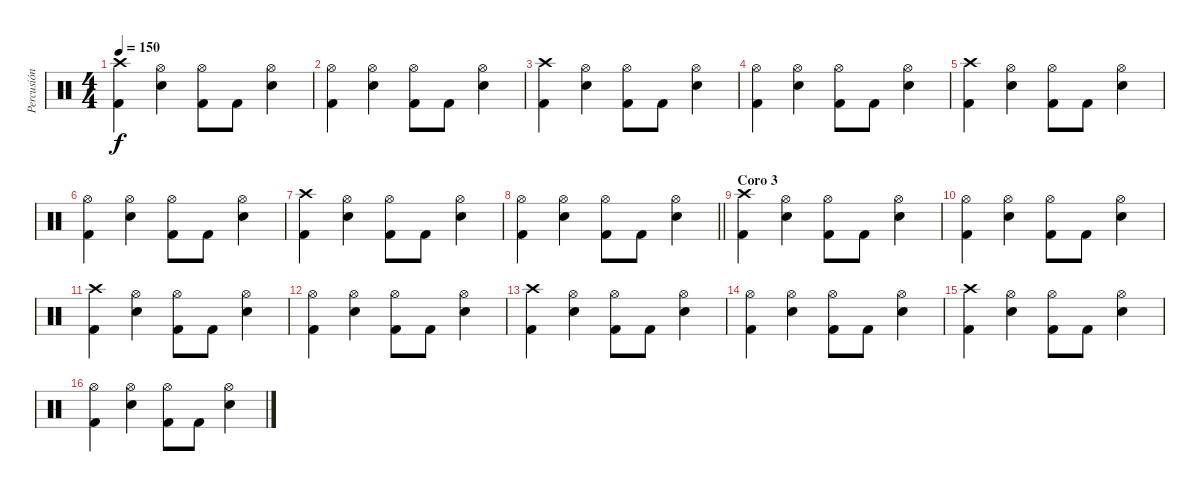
\track ("Percusión" "Percusión") {instrument percussion}
\staff {score}
\articulation defaults
\ts (4 4)
\tempo 150
\clef neutral
\ks c
("Crash high (hit)" "Kick (hit) 2").4{dy f} ("Hi-Hat (open)" "Electric Snare (hit)").4 ("Hi-Hat (open)" "Kick (hit) 2").8 "Kick (hit) 2".8 ("Hi-Hat (open)" "Electric Snare (hit)").4 |
("Hi-Hat (open)" "Kick (hit) 2").4 ("Hi-Hat (open)" "Electric Snare (hit)").4 ("Hi-Hat (open)" "Kick (hit) 2").8 "Kick (hit) 2".8 ("Hi-Hat (open)" "Electric Snare (hit)").4 |
("Crash high (hit)" "Kick (hit) 2").4 ("Hi-Hat (open)" "Electric Snare (hit)").4 ("Hi-Hat (open)" "Kick (hit) 2").8 "Kick (hit) 2".8 ("Hi-Hat (open)" "Electric Snare (hit)").4 |
("Hi-Hat (open)" "Kick (hit) 2").4 ("Hi-Hat (open)" "Electric Snare (hit)").4 ("Hi-Hat (open)" "Kick (hit) 2").8 "Kick (hit) 2".8 ("Hi-Hat (open)" "Electric Snare (hit)").4 |
("Crash high (hit)" "Kick (hit) 2").4 ("Hi-Hat (open)" "Electric Snare (hit)").4 ("Hi-Hat (open)" "Kick (hit) 2").8 "Kick (hit) 2".8 ("Hi-Hat (open)" "Electric Snare (hit)").4 |
("Hi-Hat (open)" "Kick (hit) 2").4 ("Hi-Hat (open)" "Electric Snare (hit)").4 ("Hi-Hat (open)" "Kick (hit) 2").8 "Kick (hit) 2".8 ("Hi-Hat (open)" "Electric Snare (hit)").4 |
("Crash high (hit)" "Kick (hit) 2").4 ("Hi-Hat (open)" "Electric Snare (hit)").4 ("Hi-Hat (open)" "Kick (hit) 2").8 "Kick (hit) 2".8 ("Hi-Hat (open)" "Electric Snare (hit)").4 |
\barLineRight lightlight
("Hi-Hat (open)" "Kick (hit) 2").4 ("Hi-Hat (open)" "Electric Snare (hit)").4 ("Hi-Hat (open)" "Kick (hit) 2").8 "Kick (hit) 2".8 ("Hi-Hat (open)" "Electric Snare (hit)").4 |
\section ("" "Coro 3")
("Crash high (hit)" "Kick (hit) 2").4 ("Hi-Hat (open)" "Electric Snare (hit)").4 ("Hi-Hat (open)" "Kick (hit) 2").8 "Kick (hit) 2".8 ("Hi-Hat (open)" "Electric Snare (hit)").4 |
("Hi-Hat (open)" "Kick (hit) 2").4 ("Hi-Hat (open)" "Electric Snare (hit)").4 ("Hi-Hat (open)" "Kick (hit) 2").8 "Kick (hit) 2".8 ("Hi-Hat (open)" "Electric Snare (hit)").4 |
("Crash high (hit)" "Kick (hit) 2").4 ("Hi-Hat (open)" "Electric Snare (hit)").4 ("Hi-Hat (open)" "Kick (hit) 2").8 "Kick (hit) 2".8 ("Hi-Hat (open)" "Electric Snare (hit)").4 |
("Hi-Hat (open)" "Kick (hit) 2").4 ("Hi-Hat (open)" "Electric Snare (hit)").4 ("Hi-Hat (open)" "Kick (hit) 2").8 "Kick (hit) 2".8 ("Hi-Hat (open)" "Electric Snare (hit)").4 |
("Crash high (hit)" "Kick (hit) 2").4 ("Hi-Hat (open)" "Electric Snare (hit)").4 ("Hi-Hat (open)" "Kick (hit) 2").8 "Kick (hit) 2".8 ("Hi-Hat (open)" "Electric Snare (hit)").4 |
("Hi-Hat (open)" "Kick (hit) 2").4 ("Hi-Hat (open)" "Electric Snare (hit)").4 ("Hi-Hat (open)" "Kick (hit) 2").8 "Kick (hit) 2".8 ("Hi-Hat (open)" "Electric Snare (hit)").4 |
("Crash high (hit)" "Kick (hit) 2").4 ("Hi-Hat (open)" "Electric Snare (hit)").4 ("Hi-Hat (open)" "Kick (hit) 2").8 "Kick (hit) 2".8 ("Hi-Hat (open)" "Electric Snare (hit)").4 |
("Hi-Hat (open)" "Kick (hit) 2").4 ("Hi-Hat (open)" "Electric Snare (hit)").4 ("Hi-Hat (open)" "Kick (hit) 2").8 "Kick (hit) 2".8 ("Hi-Hat (open)" "Electric Snare (hit)").4
